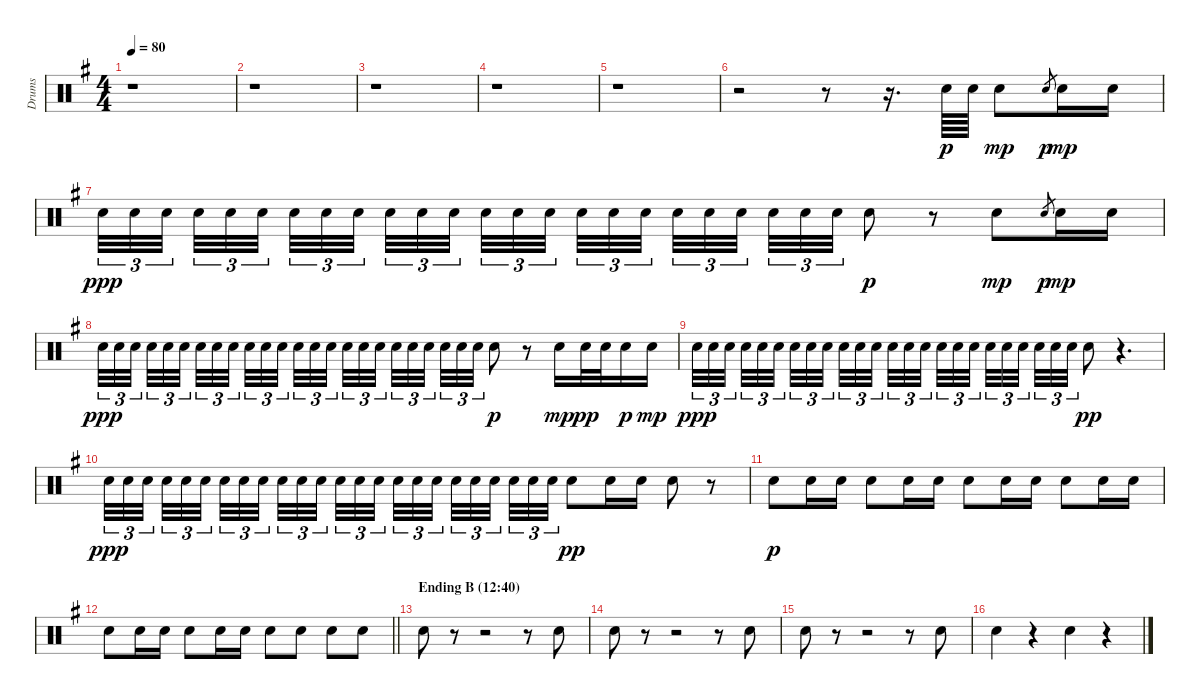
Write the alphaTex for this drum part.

\track ("Drums" "Drums") {instrument percussion}
\staff {score}
\articulation defaults
\ts (4 4)
\tempo 80
\clef neutral
\ks eminor
r.1{dy p} |
r.1 |
r.1 |
r.1 |
r.1 |
r.2 r.8 r.16{d} "Snare (hit) 2".64 "Snare (hit) 2".64 "Snare (hit) 2".8{dy mp} "Snare (hit) 2".8{gr dy p} "Snare (hit) 2".16{dy mp} "Snare (hit) 2".16 |
"Snare (hit) 2".32{tu (3 2) dy ppp} "Snare (hit) 2".32{tu (3 2)} "Snare (hit) 2".32{tu (3 2) beam splitsecondary} "Snare (hit) 2".32{tu (3 2)} "Snare (hit) 2".32{tu (3 2)} "Snare (hit) 2".32{tu (3 2) beam splitsecondary} "Snare (hit) 2".32{tu (3 2)} "Snare (hit) 2".32{tu (3 2)} "Snare (hit) 2".32{tu (3 2) beam splitsecondary} "Snare (hit) 2".32{tu (3 2)} "Snare (hit) 2".32{tu (3 2)} "Snare (hit) 2".32{tu (3 2)} "Snare (hit) 2".32{tu (3 2)} "Snare (hit) 2".32{tu (3 2)} "Snare (hit) 2".32{tu (3 2) beam splitsecondary} "Snare (hit) 2".32{tu (3 2)} "Snare (hit) 2".32{tu (3 2)} "Snare (hit) 2".32{tu (3 2) beam splitsecondary} "Snare (hit) 2".32{tu (3 2)} "Snare (hit) 2".32{tu (3 2)} "Snare (hit) 2".32{tu (3 2) beam splitsecondary} "Snare (hit) 2".32{tu (3 2)} "Snare (hit) 2".32{tu (3 2)} "Snare (hit) 2".32{tu (3 2)} "Snare (hit) 2".8{dy p} r.8 "Snare (hit) 2".8{dy mp} "Snare (hit) 2".8{gr dy p} "Snare (hit) 2".16{dy mp} "Snare (hit) 2".16 |
"Snare (hit) 2".32{tu (3 2) dy ppp} "Snare (hit) 2".32{tu (3 2)} "Snare (hit) 2".32{tu (3 2) beam splitsecondary} "Snare (hit) 2".32{tu (3 2)} "Snare (hit) 2".32{tu (3 2)} "Snare (hit) 2".32{tu (3 2) beam splitsecondary} "Snare (hit) 2".32{tu (3 2)} "Snare (hit) 2".32{tu (3 2)} "Snare (hit) 2".32{tu (3 2) beam splitsecondary} "Snare (hit) 2".32{tu (3 2)} "Snare (hit) 2".32{tu (3 2)} "Snare (hit) 2".32{tu (3 2)} "Snare (hit) 2".32{tu (3 2)} "Snare (hit) 2".32{tu (3 2)} "Snare (hit) 2".32{tu (3 2) beam splitsecondary} "Snare (hit) 2".32{tu (3 2)} "Snare (hit) 2".32{tu (3 2)} "Snare (hit) 2".32{tu (3 2) beam splitsecondary} "Snare (hit) 2".32{tu (3 2)} "Snare (hit) 2".32{tu (3 2)} "Snare (hit) 2".32{tu (3 2) beam splitsecondary} "Snare (hit) 2".32{tu (3 2)} "Snare (hit) 2".32{tu (3 2)} "Snare (hit) 2".32{tu (3 2)} "Snare (hit) 2".8{dy p} r.8 "Snare (hit) 2".16{dy mp} "Snare (hit) 2".32{dy pp} "Snare (hit) 2".32 "Snare (hit) 2".16{dy p} "Snare (hit) 2".16{dy mp} |
"Snare (hit) 2".32{tu (3 2) dy ppp} "Snare (hit) 2".32{tu (3 2)} "Snare (hit) 2".32{tu (3 2) beam splitsecondary} "Snare (hit) 2".32{tu (3 2)} "Snare (hit) 2".32{tu (3 2)} "Snare (hit) 2".32{tu (3 2) beam splitsecondary} "Snare (hit) 2".32{tu (3 2)} "Snare (hit) 2".32{tu (3 2)} "Snare (hit) 2".32{tu (3 2) beam splitsecondary} "Snare (hit) 2".32{tu (3 2)} "Snare (hit) 2".32{tu (3 2)} "Snare (hit) 2".32{tu (3 2)} "Snare (hit) 2".32{tu (3 2)} "Snare (hit) 2".32{tu (3 2)} "Snare (hit) 2".32{tu (3 2) beam splitsecondary} "Snare (hit) 2".32{tu (3 2)} "Snare (hit) 2".32{tu (3 2)} "Snare (hit) 2".32{tu (3 2) beam splitsecondary} "Snare (hit) 2".32{tu (3 2)} "Snare (hit) 2".32{tu (3 2)} "Snare (hit) 2".32{tu (3 2) beam splitsecondary} "Snare (hit) 2".32{tu (3 2)} "Snare (hit) 2".32{tu (3 2)} "Snare (hit) 2".32{tu (3 2)} "Snare (hit) 2".8{dy pp} r.4{d} |
"Snare (hit) 2".32{tu (3 2) dy ppp} "Snare (hit) 2".32{tu (3 2)} "Snare (hit) 2".32{tu (3 2) beam splitsecondary} "Snare (hit) 2".32{tu (3 2)} "Snare (hit) 2".32{tu (3 2)} "Snare (hit) 2".32{tu (3 2) beam splitsecondary} "Snare (hit) 2".32{tu (3 2)} "Snare (hit) 2".32{tu (3 2)} "Snare (hit) 2".32{tu (3 2) beam splitsecondary} "Snare (hit) 2".32{tu (3 2)} "Snare (hit) 2".32{tu (3 2)} "Snare (hit) 2".32{tu (3 2)} "Snare (hit) 2".32{tu (3 2)} "Snare (hit) 2".32{tu (3 2)} "Snare (hit) 2".32{tu (3 2) beam splitsecondary} "Snare (hit) 2".32{tu (3 2)} "Snare (hit) 2".32{tu (3 2)} "Snare (hit) 2".32{tu (3 2) beam splitsecondary} "Snare (hit) 2".32{tu (3 2)} "Snare (hit) 2".32{tu (3 2)} "Snare (hit) 2".32{tu (3 2) beam splitsecondary} "Snare (hit) 2".32{tu (3 2)} "Snare (hit) 2".32{tu (3 2)} "Snare (hit) 2".32{tu (3 2)} "Snare (hit) 2".8{dy pp} "Snare (hit) 2".16 "Snare (hit) 2".16 "Snare (hit) 2".8 r.8 |
"Snare (hit) 2".8{dy p} "Snare (hit) 2".16 "Snare (hit) 2".16 "Snare (hit) 2".8 "Snare (hit) 2".16 "Snare (hit) 2".16 "Snare (hit) 2".8 "Snare (hit) 2".16 "Snare (hit) 2".16 "Snare (hit) 2".8 "Snare (hit) 2".16 "Snare (hit) 2".16 |
\barLineRight lightlight "Snare (hit) 2".8 "Snare (hit) 2".16 "Snare (hit) 2".16 "Snare (hit) 2".8 "Snare (hit) 2".16 "Snare (hit) 2".16 "Snare (hit) 2".8 "Snare (hit) 2".8 "Snare (hit) 2".8 "Snare (hit) 2".8
|
\section ("" "Ending B (12:40)")
"Snare (hit) 2".8 r.8 r.2 r.8 "Snare (hit) 2".8 |
"Snare (hit) 2".8 r.8 r.2 r.8 "Snare (hit) 2".8 |
"Snare (hit) 2".8 r.8 r.2 r.8 "Snare (hit) 2".8 |
"Snare (hit) 2".4 r.4 "Snare (hit) 2".4 r.4
